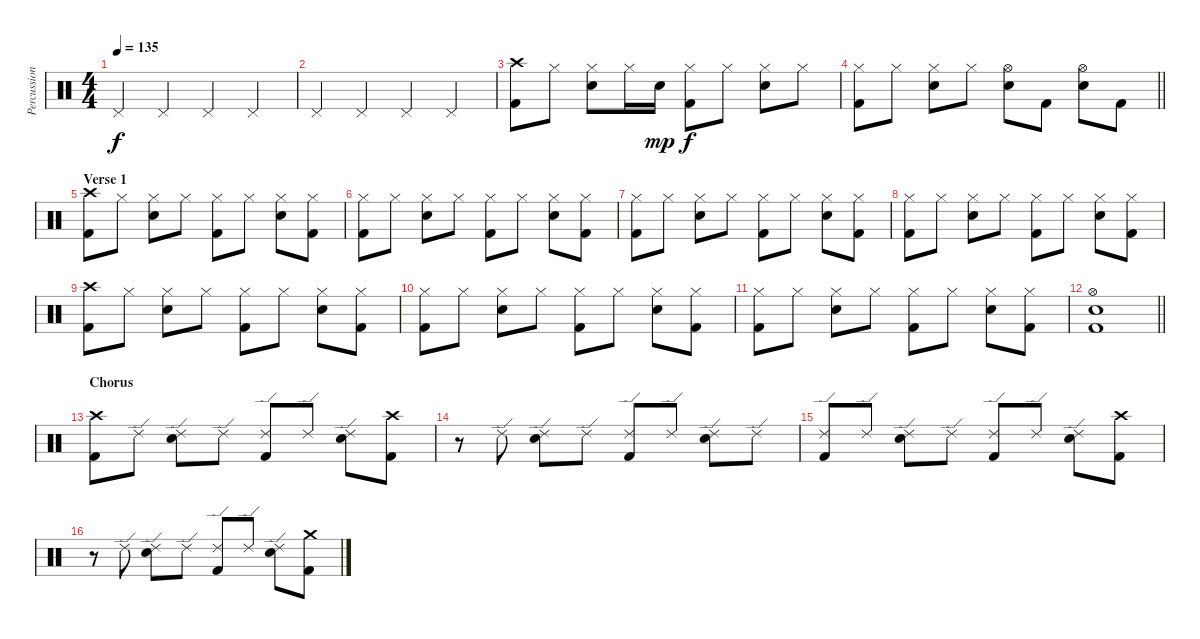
\track ("Percussion" "Percussion") {instrument percussion}
\staff {score}
\articulation defaults
\ts (4 4)
\tempo 135
\clef neutral
\ks c "Pedal Hi-Hat (hit)".4{dy f} "Pedal Hi-Hat (hit)".4 "Pedal Hi-Hat (hit)".4 "Pedal Hi-Hat (hit)".4
|
"Pedal Hi-Hat (hit)".4 "Pedal Hi-Hat (hit)".4 "Pedal Hi-Hat (hit)".4 "Pedal Hi-Hat (hit)".4 |
("Crash high (hit)" "Kick (hit) 2").8 "Hi-Hat (closed)".8 ("Hi-Hat (closed)" "Snare (hit) 2").8 "Hi-Hat (closed)".16 "Snare (hit) 2".16{dy mp} ("Hi-Hat (closed)" "Kick (hit) 2").8{dy f} "Hi-Hat (closed)".8 ("Hi-Hat (closed)" "Snare (hit) 2").8 "Hi-Hat (closed)".8 |
\barLineRight lightlight
("Hi-Hat (closed)" "Kick (hit) 2").8 "Hi-Hat (closed)".8 ("Hi-Hat (closed)" "Snare (hit) 2").8 "Hi-Hat (closed)".8 ("Hi-Hat (open)" "Snare (hit) 2").8 "Kick (hit) 2".8 ("Hi-Hat (open)" "Snare (hit) 2").8 "Kick (hit) 2".8 |
\section ("" "Verse 1")
("Crash high (hit)" "Kick (hit) 2").8 "Hi-Hat (closed)".8 ("Hi-Hat (closed)" "Snare (hit) 2").8 "Hi-Hat (closed)".8 ("Hi-Hat (closed)" "Kick (hit) 2").8 "Hi-Hat (closed)".8 ("Hi-Hat (closed)" "Snare (hit) 2").8 ("Hi-Hat (closed)" "Kick (hit) 2").8 |
("Hi-Hat (closed)" "Kick (hit) 2").8 "Hi-Hat (closed)".8 ("Hi-Hat (closed)" "Snare (hit) 2").8 "Hi-Hat (closed)".8 ("Hi-Hat (closed)" "Kick (hit) 2").8 "Hi-Hat (closed)".8 ("Hi-Hat (closed)" "Snare (hit) 2").8 ("Hi-Hat (closed)" "Kick (hit) 2").8 |
("Hi-Hat (closed)" "Kick (hit) 2").8 "Hi-Hat (closed)".8 ("Hi-Hat (closed)" "Snare (hit) 2").8 "Hi-Hat (closed)".8 ("Hi-Hat (closed)" "Kick (hit) 2").8 "Hi-Hat (closed)".8 ("Hi-Hat (closed)" "Snare (hit) 2").8 ("Hi-Hat (closed)" "Kick (hit) 2").8 |
("Hi-Hat (closed)" "Kick (hit) 2").8 "Hi-Hat (closed)".8 ("Hi-Hat (closed)" "Snare (hit) 2").8 "Hi-Hat (closed)".8 ("Hi-Hat (closed)" "Kick (hit) 2").8 "Hi-Hat (closed)".8 ("Hi-Hat (closed)" "Snare (hit) 2").8 ("Hi-Hat (closed)" "Kick (hit) 2").8 |
("Crash high (hit)" "Kick (hit) 2").8 "Hi-Hat (closed)".8 ("Hi-Hat (closed)" "Snare (hit) 2").8 "Hi-Hat (closed)".8 ("Hi-Hat (closed)" "Kick (hit) 2").8 "Hi-Hat (closed)".8 ("Hi-Hat (closed)" "Snare (hit) 2").8 ("Hi-Hat (closed)" "Kick (hit) 2").8 |
("Hi-Hat (closed)" "Kick (hit) 2").8 "Hi-Hat (closed)".8 ("Hi-Hat (closed)" "Snare (hit) 2").8 "Hi-Hat (closed)".8 ("Hi-Hat (closed)" "Kick (hit) 2").8 "Hi-Hat (closed)".8 ("Hi-Hat (closed)" "Snare (hit) 2").8 ("Hi-Hat (closed)" "Kick (hit) 2").8 |
("Hi-Hat (closed)" "Kick (hit) 2").8 "Hi-Hat (closed)".8 ("Hi-Hat (closed)" "Snare (hit) 2").8 "Hi-Hat (closed)".8 ("Hi-Hat (closed)" "Kick (hit) 2").8 "Hi-Hat (closed)".8 ("Hi-Hat (closed)" "Snare (hit) 2").8 ("Hi-Hat (closed)" "Kick (hit) 2").8 |
\barLineRight lightlight
("Hi-Hat (open)" "Snare (hit) 2" "Kick (hit) 2").1 |
\section ("" "Chorus")
("Crash high (hit)" "Kick (hit) 2").8 "Ride (edge) 2".8 ("Ride (edge) 2" "Snare (hit) 2").8 "Ride (edge) 2".8 ("Ride (edge) 2" "Kick (hit) 2").8 "Ride (edge) 2".8 ("Ride (edge) 2" "Snare (hit) 2").8 ("Crash high (hit)" "Kick (hit) 2").8 |
r.8 "Ride (edge) 2".8 ("Ride (edge) 2" "Snare (hit) 2").8 "Ride (edge) 2".8 ("Ride (edge) 2" "Kick (hit) 2").8 "Ride (edge) 2".8 ("Ride (edge) 2" "Snare (hit) 2").8 "Ride (edge) 2".8 |
("Ride (edge) 2" "Kick (hit) 2").8 "Ride (edge) 2".8 ("Ride (edge) 2" "Snare (hit) 2").8 "Ride (edge) 2".8 ("Ride (edge) 2" "Kick (hit) 2").8 "Ride (edge) 2".8 ("Ride (edge) 2" "Snare (hit) 2").8 ("Crash high (hit)" "Kick (hit) 2").8 |
r.8 "Ride (edge) 2".8 ("Ride (edge) 2" "Snare (hit) 2").8 "Ride (edge) 2".8 ("Ride (edge) 2" "Kick (hit) 2").8 "Ride (edge) 2".8 ("Ride (edge) 2" "Snare (hit) 2").8 ("Crash medium (hit)" "Kick (hit) 2").8
